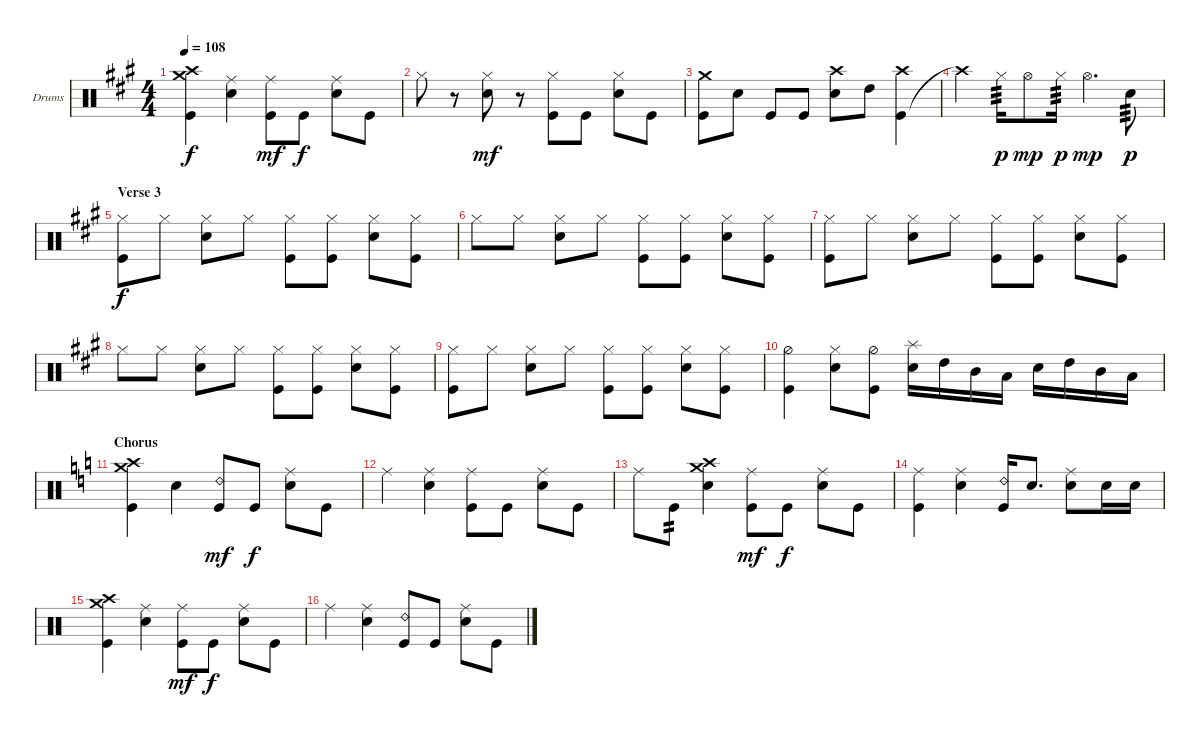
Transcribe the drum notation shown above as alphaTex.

\defaultSystemsLayout 4
\bracketExtendMode groupsimilarinstruments
\firstSystemTrackNameOrientation horizontal
\otherSystemsTrackNameOrientation horizontal
\track ("Drums" "Drums") {instrument percussion}
\staff {score}
\articulation defaults
\ts (4 4)
\tempo 108
\clef neutral
\ks a
("Kick (hit)" "Crash high (hit)" "Crash medium (hit)").4{dy f} ("Snare (hit) 2" "Ride (middle)").4 ("Kick (hit)" "Ride (middle)").8{dy mf} "Kick (hit)".8{dy f} ("Snare (hit) 2" "Ride (middle)").8 "Kick (hit)".8 |
"Hi-Hat (closed)".8 r.8 ("Snare (hit) 2" "Hi-Hat (closed)").8{dy mf} r.8 ("Kick (hit)" "Hi-Hat (closed)").8 "Kick (hit)".8 ("Snare (hit) 2" "Hi-Hat (closed)").8 "Kick (hit)".8 |
("Kick (hit)" "Crash medium (hit)").8 "Snare (hit) 2".8 "Kick (hit)".8 "Kick (hit)".8 ("Snare (hit) 2" "Crash high (hit)").8 "High Tom (hit)".8 ("Kick (hit)" "Crash high (hit)").4 |
"Crash high (hit)"{t}.4 "Hi-Hat (closed)".16{tp 3 dy p} "Hi-Hat (open)".8{dy mp} "Hi-Hat (closed)".16{tp 3 dy p} "Hi-Hat (open)".4{d dy mp} "Snare (hit) 2".8{tp 3 dy p} |
\section ("" "Verse 3")
("Kick (hit)" "Hi-Hat (closed)").8{dy f} "Hi-Hat (closed)".8 ("Snare (hit) 2" "Hi-Hat (closed)").8 "Hi-Hat (closed)".8 ("Kick (hit)" "Hi-Hat (closed)").8 ("Kick (hit)" "Hi-Hat (closed)").8 ("Snare (hit) 2" "Hi-Hat (closed)").8 ("Kick (hit)" "Hi-Hat (closed)").8 |
"Hi-Hat (closed)".8 "Hi-Hat (closed)".8 ("Snare (hit) 2" "Hi-Hat (closed)").8 "Hi-Hat (closed)".8 ("Kick (hit)" "Hi-Hat (closed)").8 ("Kick (hit)" "Hi-Hat (closed)").8 ("Snare (hit) 2" "Hi-Hat (closed)").8 ("Kick (hit)" "Hi-Hat (closed)").8 |
("Kick (hit)" "Hi-Hat (closed)").8 "Hi-Hat (closed)".8 ("Snare (hit) 2" "Hi-Hat (closed)").8 "Hi-Hat (closed)".8 ("Kick (hit)" "Hi-Hat (closed)").8 ("Hi-Hat (closed)" "Kick (hit)").8 ("Hi-Hat (closed)" "Snare (hit) 2").8 ("Kick (hit)" "Hi-Hat (closed)").8 |
"Hi-Hat (closed)".8 "Hi-Hat (closed)".8 ("Snare (hit) 2" "Hi-Hat (closed)").8 "Hi-Hat (closed)".8 ("Kick (hit)" "Hi-Hat (closed)").8 ("Kick (hit)" "Hi-Hat (closed)").8 ("Snare (hit) 2" "Hi-Hat (closed)").8 ("Kick (hit)" "Hi-Hat (closed)").8 |
("Kick (hit)" "Hi-Hat (closed)").8 "Hi-Hat (closed)".8 ("Snare (hit) 2" "Hi-Hat (closed)").8 "Hi-Hat (closed)".8 ("Kick (hit)" "Hi-Hat (closed)").8 ("Hi-Hat (closed)" "Kick (hit)").8 ("Hi-Hat (closed)" "Snare (hit) 2").8 ("Kick (hit)" "Hi-Hat (closed)").8 |
("Kick (hit)" "Hi-Hat (half)").4 ("Snare (hit) 2" "Hi-Hat (closed)").8 ("Kick (hit)" "Hi-Hat (half)").8 ("Snare (hit) 2" "Splash (hit)").16 "High Tom (hit)".16 "Mid Tom (hit)".16 "Low Tom (hit)".16 "Snare (hit) 2".16 "High Tom (hit)".16 "Mid Tom (hit)".16 "Low Tom (hit)".16 |
\section ("" "Chorus")
\ks c
("Kick (hit)" "Crash high (hit)" "Crash medium (hit)").4 "Snare (hit) 2".4 ("Kick (hit)" "Ride (bell) 2").8{dy mf} "Kick (hit)".8{dy f} ("Snare (hit) 2" "Ride (middle)").8 "Kick (hit)".8 |
"Ride (middle)".4 ("Snare (hit) 2" "Ride (middle)").4 ("Kick (hit)" "Ride (middle)").8 "Kick (hit)".8 ("Snare (hit) 2" "Ride (middle)").8 "Kick (hit)".8 |
"Ride (middle)".8 "Kick (hit)".8{tp 2} ("Snare (hit) 2" "Crash medium (hit)" "Crash high (hit)").4 ("Kick (hit)" "Ride (middle)").8{dy mf} "Kick (hit)".8{dy f} ("Snare (hit) 2" "Ride (middle)").8 "Kick (hit)".8 |
("Kick (hit)" "Ride (middle)").4 ("Snare (hit) 2" "Ride (middle)").4 ("Kick (hit)" "Ride (bell) 2").16 "Snare (hit) 2".8{d} ("Snare (hit) 2" "Ride (middle)").8 "Snare (hit) 2".16 "Snare (hit) 2".16 |
("Kick (hit)" "Crash high (hit)" "Crash medium (hit)").4 ("Snare (hit) 2" "Ride (middle)").4 ("Kick (hit)" "Ride (middle)").8{dy mf} "Kick (hit)".8{dy f} ("Snare (hit) 2" "Ride (middle)").8 "Kick (hit)".8 |
"Ride (middle)".4 ("Snare (hit) 2" "Ride (middle)").4 ("Kick (hit)" "Ride (bell) 2").8 "Kick (hit)".8 ("Snare (hit) 2" "Ride (middle)").8 "Kick (hit)".8
